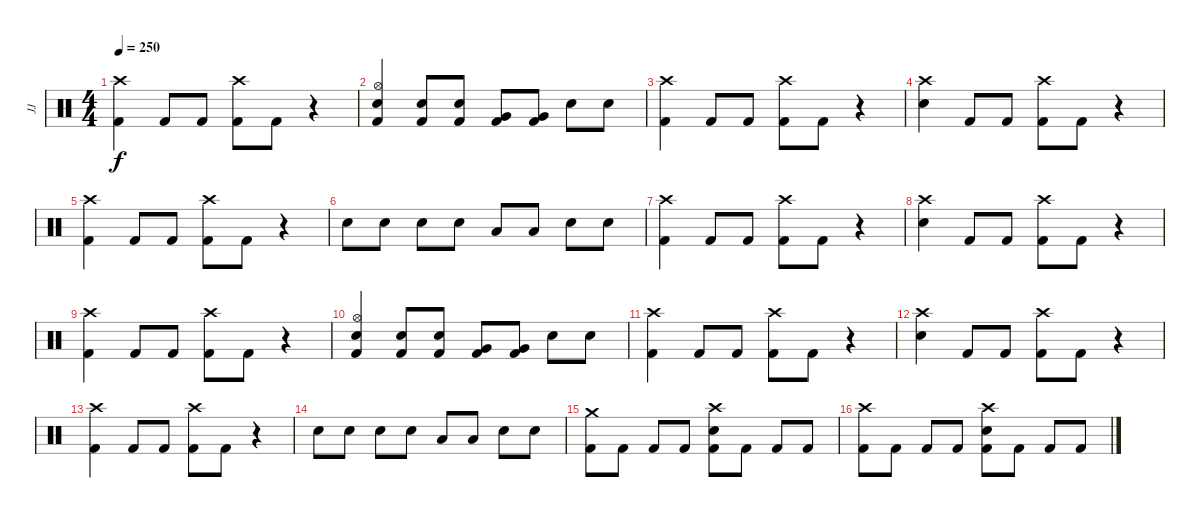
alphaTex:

\track ("JJ" "JJ") {instrument percussion}
\staff {score}
\articulation defaults
\ts (4 4)
\tempo 250
\clef neutral
\ks c
("Crash high (hit)" "Kick (hit) 2").4{dy f} "Kick (hit) 2".8 "Kick (hit) 2".8 ("Crash high (hit)" "Kick (hit) 2").8 "Kick (hit) 2".8 r.4 |
("Hi-Hat (open)" "Electric Snare (hit)" "Kick (hit) 2").4 ("Electric Snare (hit)" "Kick (hit) 2").8 ("Electric Snare (hit)" "Kick (hit) 2").8 ("Very Low Tom (hit)" "Kick (hit) 2").8 ("Very Low Tom (hit)" "Kick (hit) 2").8 "Electric Snare (hit)".8 "Electric Snare (hit)".8 |
("Crash high (hit)" "Kick (hit) 2").4 "Kick (hit) 2".8 "Kick (hit) 2".8 ("Crash high (hit)" "Kick (hit) 2").8 "Kick (hit) 2".8 r.4 |
("Crash high (hit)" "Electric Snare (hit)").4 "Kick (hit) 2".8 "Kick (hit) 2".8 ("Crash high (hit)" "Kick (hit) 2").8 "Kick (hit) 2".8 r.4 |
("Crash high (hit)" "Kick (hit) 2").4 "Kick (hit) 2".8 "Kick (hit) 2".8 ("Crash high (hit)" "Kick (hit) 2").8 "Kick (hit) 2".8 r.4 |
"Electric Snare (hit)".8 "Electric Snare (hit)".8 "Electric Snare (hit)".8 "Electric Snare (hit)".8 "Low Floor Tom (hit)".8 "Low Floor Tom (hit)".8 "Electric Snare (hit)".8 "Electric Snare (hit)".8 |
("Crash high (hit)" "Kick (hit) 2").4 "Kick (hit) 2".8 "Kick (hit) 2".8 ("Crash high (hit)" "Kick (hit) 2").8 "Kick (hit) 2".8 r.4 |
("Crash high (hit)" "Electric Snare (hit)").4 "Kick (hit) 2".8 "Kick (hit) 2".8 ("Crash high (hit)" "Kick (hit) 2").8 "Kick (hit) 2".8 r.4 |
("Crash high (hit)" "Kick (hit) 2").4 "Kick (hit) 2".8 "Kick (hit) 2".8 ("Crash high (hit)" "Kick (hit) 2").8 "Kick (hit) 2".8 r.4 |
("Hi-Hat (open)" "Electric Snare (hit)" "Kick (hit) 2").4 ("Electric Snare (hit)" "Kick (hit) 2").8 ("Electric Snare (hit)" "Kick (hit) 2").8 ("Very Low Tom (hit)" "Kick (hit) 2").8 ("Very Low Tom (hit)" "Kick (hit) 2").8 "Electric Snare (hit)".8 "Electric Snare (hit)".8 |
("Crash high (hit)" "Kick (hit) 2").4 "Kick (hit) 2".8 "Kick (hit) 2".8 ("Crash high (hit)" "Kick (hit) 2").8 "Kick (hit) 2".8 r.4 |
("Crash high (hit)" "Electric Snare (hit)").4 "Kick (hit) 2".8 "Kick (hit) 2".8 ("Crash high (hit)" "Kick (hit) 2").8 "Kick (hit) 2".8 r.4 |
("Crash high (hit)" "Kick (hit) 2").4 "Kick (hit) 2".8 "Kick (hit) 2".8 ("Crash high (hit)" "Kick (hit) 2").8 "Kick (hit) 2".8 r.4 |
"Electric Snare (hit)".8 "Electric Snare (hit)".8 "Electric Snare (hit)".8 "Electric Snare (hit)".8 "Low Floor Tom (hit)".8 "Low Floor Tom (hit)".8 "Electric Snare (hit)".8 "Electric Snare (hit)".8 |
("Crash medium (hit)" "Kick (hit) 2").8 "Kick (hit) 2".8 "Kick (hit) 2".8 "Kick (hit) 2".8 ("Crash high (hit)" "Electric Snare (hit)" "Kick (hit) 2").8 "Kick (hit) 2".8 "Kick (hit) 2".8 "Kick (hit) 2".8 |
("Crash high (hit)" "Kick (hit) 2").8 "Kick (hit) 2".8 "Kick (hit) 2".8 "Kick (hit) 2".8 ("Crash high (hit)" "Electric Snare (hit)" "Kick (hit) 2").8 "Kick (hit) 2".8 "Kick (hit) 2".8 "Kick (hit) 2".8
